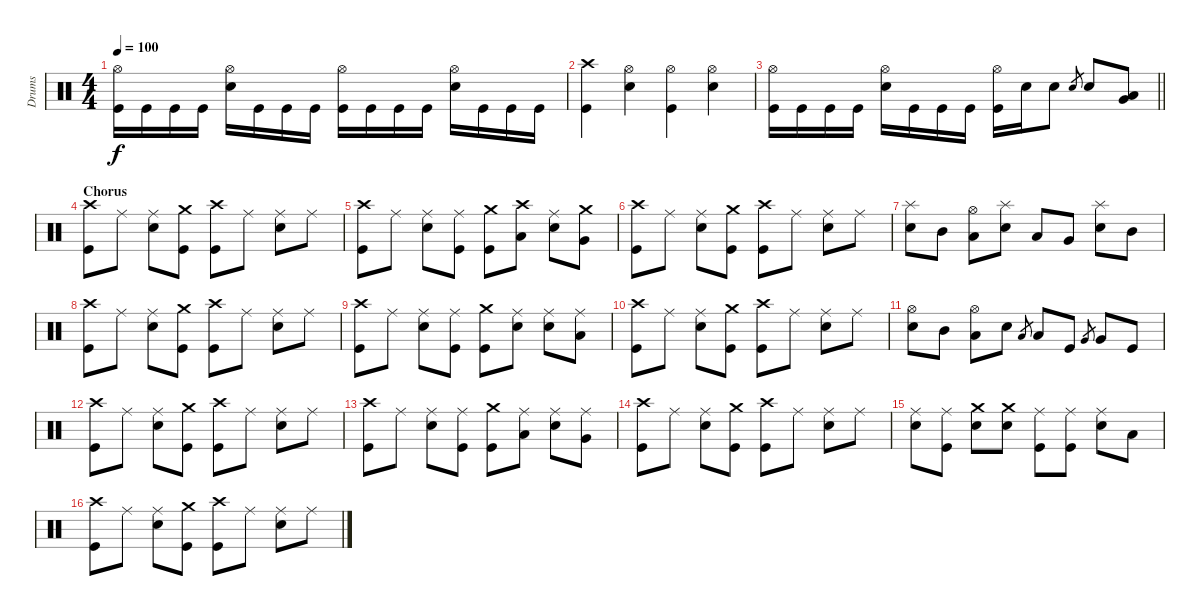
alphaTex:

\track ("Drums" "Drums") {instrument percussion}
\staff {score}
\articulation defaults
\ts (4 4)
\tempo 100
\clef neutral
\ks c
("Hi-Hat (open)" "Kick (hit)").16{dy f} "Kick (hit)".16 "Kick (hit)".16 "Kick (hit)".16 ("Hi-Hat (open)" "Electric Snare (hit)").16 "Kick (hit)".16 "Kick (hit)".16 "Kick (hit)".16 ("Hi-Hat (open)" "Kick (hit)").16 "Kick (hit)".16 "Kick (hit)".16 "Kick (hit)".16 ("Hi-Hat (open)" "Electric Snare (hit)").16 "Kick (hit)".16 "Kick (hit)".16 "Kick (hit)".16 |
("Crash high (hit)" "Kick (hit)").4 ("Hi-Hat (open)" "Electric Snare (hit)").4 ("Hi-Hat (open)" "Kick (hit)").4 ("Hi-Hat (open)" "Electric Snare (hit)").4 |
\barLineRight lightlight
("Hi-Hat (open)" "Kick (hit)").16 "Kick (hit)".16 "Kick (hit)".16 "Kick (hit)".16 ("Hi-Hat (open)" "Electric Snare (hit)").16 "Kick (hit)".16 "Kick (hit)".16 "Kick (hit)".16 ("Hi-Hat (open)" "Kick (hit)").16 "Electric Snare (hit)".16 "Electric Snare (hit)".8 "Electric Snare (hit)".8{gr} "Electric Snare (hit)".8 ("Very Low Tom (hit)" "Low Tom (hit)").8 |
\section ("" "Chorus")
("Crash high (hit)" "Kick (hit)").8 "Ride (middle)".8 ("Ride (middle)" "Electric Snare (hit)").8 ("Crash medium (hit)" "Kick (hit)").8 ("Crash high (hit)" "Kick (hit)").8 "Ride (middle)".8 ("Ride (middle)" "Electric Snare (hit)").8 "Ride (middle)".8 |
("Crash high (hit)" "Kick (hit)").8 "Ride (middle)".8 ("Ride (middle)" "Electric Snare (hit)").8 ("Ride (middle)" "Kick (hit)").8 ("Crash medium (hit)" "Kick (hit)").8 ("Crash high (hit)" "Low Tom (hit)").8 ("Ride (middle)" "Electric Snare (hit)").8 ("Crash medium (hit)" "Very Low Tom (hit)").8 |
("Crash high (hit)" "Kick (hit)").8 "Ride (middle)".8 ("Ride (middle)" "Electric Snare (hit)").8 ("Crash medium (hit)" "Kick (hit)").8 ("Crash high (hit)" "Kick (hit)").8 "Ride (middle)".8 ("Ride (middle)" "Electric Snare (hit)").8 "Ride (middle)".8 |
("Splash (hit)" "Electric Snare (hit)").8 "Mid Tom (hit)".8 ("Hi-Hat (open)" "Low Tom (hit)").8 ("Splash (hit)" "Electric Snare (hit)").8 "Low Tom (hit)".8 "Very Low Tom (hit)".8 ("Splash (hit)" "Electric Snare (hit)").8 "Mid Tom (hit)".8 |
("Crash high (hit)" "Kick (hit)").8 "Ride (middle)".8 ("Ride (middle)" "Electric Snare (hit)").8 ("Crash medium (hit)" "Kick (hit)").8 ("Crash high (hit)" "Kick (hit)").8 "Ride (middle)".8 ("Ride (middle)" "Electric Snare (hit)").8 "Ride (middle)".8 |
("Crash high (hit)" "Kick (hit)").8 "Ride (middle)".8 ("Ride (middle)" "Electric Snare (hit)").8 ("Ride (middle)" "Kick (hit)").8 ("Crash medium (hit)" "Kick (hit)").8 ("Ride (middle)" "Electric Snare (hit)").8 ("Ride (middle)" "Electric Snare (hit)").8 ("Ride (middle)" "Low Tom (hit)").8 |
("Crash high (hit)" "Kick (hit)").8 "Ride (middle)".8 ("Ride (middle)" "Electric Snare (hit)").8 ("Crash medium (hit)" "Kick (hit)").8 ("Crash high (hit)" "Kick (hit)").8 "Ride (middle)".8 ("Ride (middle)" "Electric Snare (hit)").8 "Ride (middle)".8 |
("Hi-Hat (open)" "Electric Snare (hit)").8 "Mid Tom (hit)".8 ("Hi-Hat (open)" "Low Tom (hit)").8 "Electric Snare (hit)".8 "Low Tom (hit)".8{gr} "Low Tom (hit)".8 "Kick (hit)".8 "Very Low Tom (hit)".8{gr} "Very Low Tom (hit)".8 "Kick (hit)".8 |
("Crash high (hit)" "Kick (hit)").8 "Ride (middle)".8 ("Ride (middle)" "Electric Snare (hit)").8 ("Crash medium (hit)" "Kick (hit)").8 ("Crash high (hit)" "Kick (hit)").8 "Ride (middle)".8 ("Ride (middle)" "Electric Snare (hit)").8 "Ride (middle)".8 |
("Crash high (hit)" "Kick (hit)").8 "Ride (middle)".8 ("Ride (middle)" "Electric Snare (hit)").8 ("Ride (middle)" "Kick (hit)").8 ("Crash medium (hit)" "Kick (hit)").8 ("Ride (middle)" "Low Tom (hit)").8 ("Ride (middle)" "Electric Snare (hit)").8 ("Ride (middle)" "Very Low Tom (hit)").8 |
("Crash high (hit)" "Kick (hit)").8 "Ride (middle)".8 ("Ride (middle)" "Electric Snare (hit)").8 ("Crash medium (hit)" "Kick (hit)").8 ("Crash high (hit)" "Kick (hit)").8 "Ride (middle)".8 ("Ride (middle)" "Electric Snare (hit)").8 "Ride (middle)".8 |
("Ride (middle)" "Electric Snare (hit)").8 ("Ride (middle)" "Kick (hit)").8 ("Crash medium (hit)" "Electric Snare (hit)").8 ("Crash medium (hit)" "Electric Snare (hit)").8 ("Ride (middle)" "Kick (hit)").8 ("Ride (middle)" "Kick (hit)").8 ("Ride (middle)" "Electric Snare (hit)").8 "Low Tom (hit)".8 |
("Crash high (hit)" "Kick (hit)").8 "Ride (middle)".8 ("Ride (middle)" "Electric Snare (hit)").8 ("Crash medium (hit)" "Kick (hit)").8 ("Crash high (hit)" "Kick (hit)").8 "Ride (middle)".8 ("Ride (middle)" "Electric Snare (hit)").8 "Ride (middle)".8
